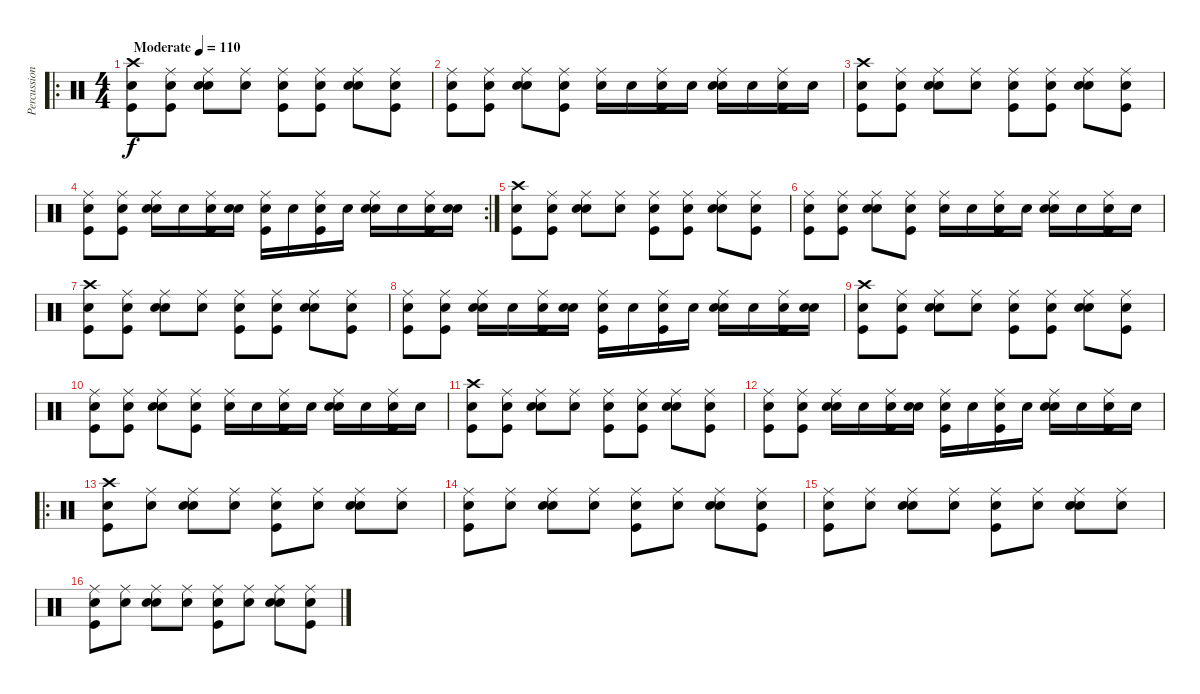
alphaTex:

\track ("Percussion" "Percussion") {instrument percussion}
\staff {score}
\articulation defaults
\ro
\ts (4 4)
\tempo (110 "Moderate")
\clef neutral
\ks c
("Snare (hit)" "Crash high (hit)" "Kick (hit)").8{dy f} ("Snare (hit)" "Ride (middle)" "Kick (hit)").8 ("Snare (hit)" "Ride (middle)" "Snare (hit) 2").8 ("Snare (hit)" "Ride (middle)").8 ("Snare (hit)" "Ride (middle)" "Kick (hit)").8 ("Snare (hit)" "Ride (middle)" "Kick (hit)").8 ("Snare (hit)" "Ride (middle)" "Snare (hit) 2").8 ("Snare (hit)" "Ride (middle)" "Kick (hit)").8 |
("Snare (hit)" "Ride (middle)" "Kick (hit)").8 ("Snare (hit)" "Ride (middle)" "Kick (hit)").8 ("Snare (hit)" "Ride (middle)" "Snare (hit) 2").8 ("Snare (hit)" "Ride (middle)" "Kick (hit)").8 ("Snare (hit)" "Ride (middle)").16 "Snare (hit)".16 ("Snare (hit)" "Ride (middle)" "Kick (hit)").16 "Snare (hit)".16 ("Snare (hit)" "Ride (middle)" "Snare (hit) 2").16 "Snare (hit)".16 ("Snare (hit)" "Ride (middle)" "Kick (hit)").16 "Snare (hit)".16 |
("Snare (hit)" "Crash high (hit)" "Kick (hit)").8 ("Snare (hit)" "Ride (middle)" "Kick (hit)").8 ("Snare (hit)" "Ride (middle)" "Snare (hit) 2").8 ("Snare (hit)" "Ride (middle)").8 ("Snare (hit)" "Ride (middle)" "Kick (hit)").8 ("Snare (hit)" "Ride (middle)" "Kick (hit)").8 ("Snare (hit)" "Ride (middle)" "Snare (hit) 2").8 ("Snare (hit)" "Ride (middle)" "Kick (hit)").8 |
\rc 2
("Snare (hit)" "Ride (middle)" "Kick (hit)").8 ("Snare (hit)" "Ride (middle)" "Kick (hit)").8 ("Snare (hit)" "Ride (middle)" "Snare (hit) 2").16 "Snare (hit)".16 ("Snare (hit)" "Ride (middle)" "Kick (hit)").16 ("Snare (hit)" "Snare (hit) 2").16 ("Snare (hit)" "Ride (middle)" "Kick (hit)").16 "Snare (hit)".16 ("Snare (hit)" "Ride (middle)" "Kick (hit)").16 "Snare (hit)".16 ("Snare (hit)" "Ride (middle)" "Snare (hit) 2").16 "Snare (hit)".16 ("Snare (hit)" "Ride (middle)" "Kick (hit)").16 ("Snare (hit)" "Snare (hit) 2").16 |
("Snare (hit)" "Crash high (hit)" "Kick (hit)").8 ("Snare (hit)" "Ride (middle)" "Kick (hit)").8 ("Snare (hit)" "Ride (middle)" "Snare (hit) 2").8 ("Snare (hit)" "Ride (middle)").8 ("Snare (hit)" "Ride (middle)" "Kick (hit)").8 ("Snare (hit)" "Ride (middle)" "Kick (hit)").8 ("Snare (hit)" "Ride (middle)" "Snare (hit) 2").8 ("Snare (hit)" "Ride (middle)" "Kick (hit)").8 |
("Snare (hit)" "Ride (middle)" "Kick (hit)").8 ("Snare (hit)" "Ride (middle)" "Kick (hit)").8 ("Snare (hit)" "Ride (middle)" "Snare (hit) 2").8 ("Snare (hit)" "Ride (middle)" "Kick (hit)").8 ("Snare (hit)" "Ride (middle)").16 "Snare (hit)".16 ("Snare (hit)" "Ride (middle)" "Kick (hit)").16 "Snare (hit)".16 ("Snare (hit)" "Ride (middle)" "Snare (hit) 2").16 "Snare (hit)".16 ("Snare (hit)" "Ride (middle)" "Kick (hit)").16 "Snare (hit)".16 |
("Snare (hit)" "Crash high (hit)" "Kick (hit)").8 ("Snare (hit)" "Ride (middle)" "Kick (hit)").8 ("Snare (hit)" "Ride (middle)" "Snare (hit) 2").8 ("Snare (hit)" "Ride (middle)").8 ("Snare (hit)" "Ride (middle)" "Kick (hit)").8 ("Snare (hit)" "Ride (middle)" "Kick (hit)").8 ("Snare (hit)" "Ride (middle)" "Snare (hit) 2").8 ("Snare (hit)" "Ride (middle)" "Kick (hit)").8 |
("Snare (hit)" "Ride (middle)" "Kick (hit)").8 ("Snare (hit)" "Ride (middle)" "Kick (hit)").8 ("Snare (hit)" "Ride (middle)" "Snare (hit) 2").16 "Snare (hit)".16 ("Snare (hit)" "Ride (middle)" "Kick (hit)").16 ("Snare (hit)" "Snare (hit) 2").16 ("Snare (hit)" "Ride (middle)" "Kick (hit)").16 "Snare (hit)".16 ("Snare (hit)" "Ride (middle)" "Kick (hit)").16 "Snare (hit)".16 ("Snare (hit)" "Ride (middle)" "Snare (hit) 2").16 "Snare (hit)".16 ("Snare (hit)" "Ride (middle)" "Kick (hit)").16 ("Snare (hit)" "Snare (hit) 2").16 |
("Snare (hit)" "Crash high (hit)" "Kick (hit)").8 ("Snare (hit)" "Ride (middle)" "Kick (hit)").8 ("Snare (hit)" "Ride (middle)" "Snare (hit) 2").8 ("Snare (hit)" "Ride (middle)").8 ("Snare (hit)" "Ride (middle)" "Kick (hit)").8 ("Snare (hit)" "Ride (middle)" "Kick (hit)").8 ("Snare (hit)" "Ride (middle)" "Snare (hit) 2").8 ("Snare (hit)" "Ride (middle)" "Kick (hit)").8 |
("Snare (hit)" "Ride (middle)" "Kick (hit)").8 ("Snare (hit)" "Ride (middle)" "Kick (hit)").8 ("Snare (hit)" "Ride (middle)" "Snare (hit) 2").8 ("Snare (hit)" "Ride (middle)" "Kick (hit)").8 ("Snare (hit)" "Ride (middle)").16 "Snare (hit)".16 ("Snare (hit)" "Ride (middle)" "Kick (hit)").16 "Snare (hit)".16 ("Snare (hit)" "Ride (middle)" "Snare (hit) 2").16 "Snare (hit)".16 ("Snare (hit)" "Ride (middle)" "Kick (hit)").16 "Snare (hit)".16 |
("Snare (hit)" "Crash high (hit)" "Kick (hit)").8 ("Snare (hit)" "Ride (middle)" "Kick (hit)").8 ("Snare (hit)" "Ride (middle)" "Snare (hit) 2").8 ("Snare (hit)" "Ride (middle)").8 ("Snare (hit)" "Ride (middle)" "Kick (hit)").8 ("Snare (hit)" "Ride (middle)" "Kick (hit)").8 ("Snare (hit)" "Ride (middle)" "Snare (hit) 2").8 ("Snare (hit)" "Ride (middle)" "Kick (hit)").8 |
("Snare (hit)" "Ride (middle)" "Kick (hit)").8 ("Snare (hit)" "Ride (middle)" "Kick (hit)").8 ("Snare (hit)" "Ride (middle)" "Snare (hit) 2").16 "Snare (hit)".16 ("Snare (hit)" "Ride (middle)" "Kick (hit)").16 ("Snare (hit)" "Snare (hit) 2").16 ("Snare (hit)" "Ride (middle)" "Kick (hit)").16 "Snare (hit)".16 ("Snare (hit)" "Ride (middle)" "Kick (hit)").16 "Snare (hit)".16 ("Snare (hit)" "Ride (middle)" "Snare (hit) 2").16 "Snare (hit)".16 ("Snare (hit)" "Ride (middle)" "Kick (hit)").16 "Snare (hit)".16 |
\ro
("Snare (hit)" "Crash high (hit)" "Kick (hit)").8 ("Snare (hit)" "Ride (middle)").8 ("Snare (hit)" "Ride (middle)" "Snare (hit) 2").8 ("Snare (hit)" "Ride (middle)").8 ("Snare (hit)" "Ride (middle)" "Kick (hit)").8 ("Snare (hit)" "Ride (middle)").8 ("Snare (hit)" "Ride (middle)" "Snare (hit) 2").8 ("Snare (hit)" "Ride (middle)").8 |
("Snare (hit)" "Ride (middle)" "Kick (hit)").8 ("Snare (hit)" "Ride (middle)").8 ("Snare (hit)" "Ride (middle)" "Snare (hit) 2").8 ("Snare (hit)" "Ride (middle)").8 ("Snare (hit)" "Ride (middle)" "Kick (hit)").8 ("Snare (hit)" "Ride (middle)").8 ("Snare (hit)" "Ride (middle)" "Snare (hit) 2").8 ("Snare (hit)" "Ride (middle)" "Kick (hit)").8 |
("Snare (hit)" "Ride (middle)" "Kick (hit)").8 ("Snare (hit)" "Ride (middle)").8 ("Snare (hit)" "Ride (middle)" "Snare (hit) 2").8 ("Snare (hit)" "Ride (middle)").8 ("Snare (hit)" "Ride (middle)" "Kick (hit)").8 ("Snare (hit)" "Ride (middle)").8 ("Snare (hit)" "Ride (middle)" "Snare (hit) 2").8 ("Snare (hit)" "Ride (middle)").8 |
("Snare (hit)" "Ride (middle)" "Kick (hit)").8 ("Snare (hit)" "Ride (middle)").8 ("Snare (hit)" "Ride (middle)" "Snare (hit) 2").8 ("Snare (hit)" "Ride (middle)").8 ("Snare (hit)" "Ride (middle)" "Kick (hit)").8 ("Snare (hit)" "Ride (middle)").8 ("Snare (hit)" "Ride (middle)" "Snare (hit) 2").8 ("Snare (hit)" "Ride (middle)" "Kick (hit)").8
